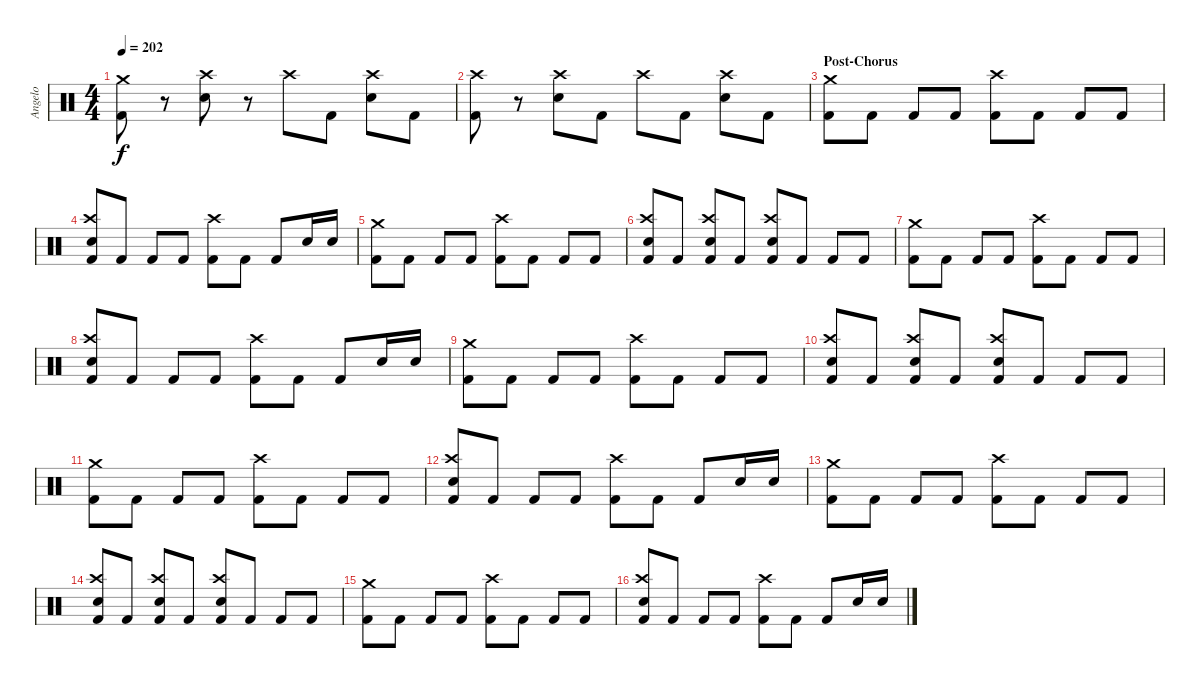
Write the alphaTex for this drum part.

\track ("Angelo" "Angelo") {instrument percussion}
\staff {score}
\articulation defaults
\ts (4 4)
\tempo 202
\clef neutral
\ks c
("Crash medium (hit)" "Kick (hit) 2").8{dy f} r.8 ("Crash high (hit)" "Electric Snare (hit)").8 r.8 "Crash high (hit)".8 "Kick (hit) 2".8 ("Crash high (hit)" "Electric Snare (hit)").8 "Kick (hit) 2".8 |
("Crash high (hit)" "Kick (hit) 2").8 r.8 ("Crash high (hit)" "Electric Snare (hit)").8 "Kick (hit) 2".8 "Crash high (hit)".8 "Kick (hit) 2".8 ("Crash high (hit)" "Electric Snare (hit)").8 "Kick (hit) 2".8 |
\section ("" "Post-Chorus")
("Crash medium (hit)" "Kick (hit) 2").8 "Kick (hit) 2".8 "Kick (hit) 2".8 "Kick (hit) 2".8 ("Crash high (hit)" "Kick (hit) 2").8 "Kick (hit) 2".8 "Kick (hit) 2".8 "Kick (hit) 2".8 |
("Crash high (hit)" "Electric Snare (hit)" "Kick (hit) 2").8 "Kick (hit) 2".8 "Kick (hit) 2".8 "Kick (hit) 2".8 ("Crash high (hit)" "Kick (hit) 2").8 "Kick (hit) 2".8 "Kick (hit) 2".8 "Electric Snare (hit)".16 "Electric Snare (hit)".16 |
("Crash medium (hit)" "Kick (hit) 2").8 "Kick (hit) 2".8 "Kick (hit) 2".8 "Kick (hit) 2".8 ("Crash high (hit)" "Kick (hit) 2").8 "Kick (hit) 2".8 "Kick (hit) 2".8 "Kick (hit) 2".8 |
("Crash high (hit)" "Electric Snare (hit)" "Kick (hit) 2").8 "Kick (hit) 2".8 ("Crash high (hit)" "Electric Snare (hit)" "Kick (hit) 2").8 "Kick (hit) 2".8 ("Crash high (hit)" "Electric Snare (hit)" "Kick (hit) 2").8 "Kick (hit) 2".8 "Kick (hit) 2".8 "Kick (hit) 2".8 |
("Crash medium (hit)" "Kick (hit) 2").8 "Kick (hit) 2".8 "Kick (hit) 2".8 "Kick (hit) 2".8 ("Crash high (hit)" "Kick (hit) 2").8 "Kick (hit) 2".8 "Kick (hit) 2".8 "Kick (hit) 2".8 |
("Crash high (hit)" "Electric Snare (hit)" "Kick (hit) 2").8 "Kick (hit) 2".8 "Kick (hit) 2".8 "Kick (hit) 2".8 ("Crash high (hit)" "Kick (hit) 2").8 "Kick (hit) 2".8 "Kick (hit) 2".8 "Electric Snare (hit)".16 "Electric Snare (hit)".16 |
("Crash medium (hit)" "Kick (hit) 2").8 "Kick (hit) 2".8 "Kick (hit) 2".8 "Kick (hit) 2".8 ("Crash high (hit)" "Kick (hit) 2").8 "Kick (hit) 2".8 "Kick (hit) 2".8 "Kick (hit) 2".8 |
("Crash high (hit)" "Electric Snare (hit)" "Kick (hit) 2").8 "Kick (hit) 2".8 ("Crash high (hit)" "Electric Snare (hit)" "Kick (hit) 2").8 "Kick (hit) 2".8 ("Crash high (hit)" "Electric Snare (hit)" "Kick (hit) 2").8 "Kick (hit) 2".8 "Kick (hit) 2".8 "Kick (hit) 2".8 |
("Crash medium (hit)" "Kick (hit) 2").8 "Kick (hit) 2".8 "Kick (hit) 2".8 "Kick (hit) 2".8 ("Crash high (hit)" "Kick (hit) 2").8 "Kick (hit) 2".8 "Kick (hit) 2".8 "Kick (hit) 2".8 |
("Crash high (hit)" "Electric Snare (hit)" "Kick (hit) 2").8 "Kick (hit) 2".8 "Kick (hit) 2".8 "Kick (hit) 2".8 ("Crash high (hit)" "Kick (hit) 2").8 "Kick (hit) 2".8 "Kick (hit) 2".8 "Electric Snare (hit)".16 "Electric Snare (hit)".16 |
("Crash medium (hit)" "Kick (hit) 2").8 "Kick (hit) 2".8 "Kick (hit) 2".8 "Kick (hit) 2".8 ("Crash high (hit)" "Kick (hit) 2").8 "Kick (hit) 2".8 "Kick (hit) 2".8 "Kick (hit) 2".8 |
("Crash high (hit)" "Electric Snare (hit)" "Kick (hit) 2").8 "Kick (hit) 2".8 ("Crash high (hit)" "Electric Snare (hit)" "Kick (hit) 2").8 "Kick (hit) 2".8 ("Crash high (hit)" "Electric Snare (hit)" "Kick (hit) 2").8 "Kick (hit) 2".8 "Kick (hit) 2".8 "Kick (hit) 2".8 |
("Crash medium (hit)" "Kick (hit) 2").8 "Kick (hit) 2".8 "Kick (hit) 2".8 "Kick (hit) 2".8 ("Crash high (hit)" "Kick (hit) 2").8 "Kick (hit) 2".8 "Kick (hit) 2".8 "Kick (hit) 2".8 |
("Crash high (hit)" "Electric Snare (hit)" "Kick (hit) 2").8 "Kick (hit) 2".8 "Kick (hit) 2".8 "Kick (hit) 2".8 ("Crash high (hit)" "Kick (hit) 2").8 "Kick (hit) 2".8 "Kick (hit) 2".8 "Electric Snare (hit)".16 "Electric Snare (hit)".16
